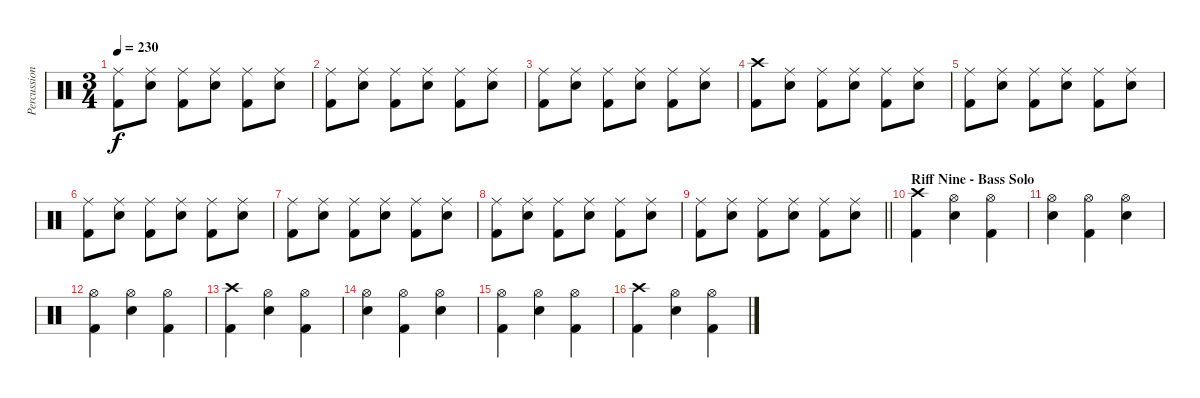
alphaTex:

\track ("Percussion" "Percussion") {instrument percussion}
\staff {score}
\articulation defaults
\ts (3 4)
\tempo 230
\clef neutral
\ks c
("Ride (middle)" "Kick (hit) 2").8{dy f} ("Ride (middle)" "Electric Snare (hit)").8 ("Ride (middle)" "Kick (hit) 2").8 ("Ride (middle)" "Electric Snare (hit)").8 ("Ride (middle)" "Kick (hit) 2").8 ("Ride (middle)" "Electric Snare (hit)").8 |
("Ride (middle)" "Kick (hit) 2").8 ("Ride (middle)" "Electric Snare (hit)").8 ("Ride (middle)" "Kick (hit) 2").8 ("Ride (middle)" "Electric Snare (hit)").8 ("Ride (middle)" "Kick (hit) 2").8 ("Ride (middle)" "Electric Snare (hit)").8 |
("Ride (middle)" "Kick (hit) 2").8 ("Ride (middle)" "Electric Snare (hit)").8 ("Ride (middle)" "Kick (hit) 2").8 ("Ride (middle)" "Electric Snare (hit)").8 ("Ride (middle)" "Kick (hit) 2").8 ("Ride (middle)" "Electric Snare (hit)").8 |
("Crash high (hit)" "Kick (hit) 2").8 ("Ride (middle)" "Electric Snare (hit)").8 ("Ride (middle)" "Kick (hit) 2").8 ("Ride (middle)" "Electric Snare (hit)").8 ("Ride (middle)" "Kick (hit) 2").8 ("Ride (middle)" "Electric Snare (hit)").8 |
("Ride (middle)" "Kick (hit) 2").8 ("Ride (middle)" "Electric Snare (hit)").8 ("Ride (middle)" "Kick (hit) 2").8 ("Ride (middle)" "Electric Snare (hit)").8 ("Ride (middle)" "Kick (hit) 2").8 ("Ride (middle)" "Electric Snare (hit)").8 |
("Ride (middle)" "Kick (hit) 2").8 ("Ride (middle)" "Electric Snare (hit)").8 ("Ride (middle)" "Kick (hit) 2").8 ("Ride (middle)" "Electric Snare (hit)").8 ("Ride (middle)" "Kick (hit) 2").8 ("Ride (middle)" "Electric Snare (hit)").8 |
("Ride (middle)" "Kick (hit) 2").8 ("Ride (middle)" "Electric Snare (hit)").8 ("Ride (middle)" "Kick (hit) 2").8 ("Ride (middle)" "Electric Snare (hit)").8 ("Ride (middle)" "Kick (hit) 2").8 ("Ride (middle)" "Electric Snare (hit)").8 |
("Ride (middle)" "Kick (hit) 2").8 ("Ride (middle)" "Electric Snare (hit)").8 ("Ride (middle)" "Kick (hit) 2").8 ("Ride (middle)" "Electric Snare (hit)").8 ("Ride (middle)" "Kick (hit) 2").8 ("Ride (middle)" "Electric Snare (hit)").8 |
\barLineRight lightlight
("Ride (middle)" "Kick (hit) 2").8 ("Ride (middle)" "Electric Snare (hit)").8 ("Ride (middle)" "Kick (hit) 2").8 ("Ride (middle)" "Electric Snare (hit)").8 ("Ride (middle)" "Kick (hit) 2").8 ("Ride (middle)" "Electric Snare (hit)").8 |
\section ("" "Riff Nine - Bass Solo")
("Crash high (hit)" "Kick (hit) 2").4 ("Hi-Hat (open)" "Electric Snare (hit)").4 ("Hi-Hat (open)" "Kick (hit) 2").4 |
("Hi-Hat (open)" "Electric Snare (hit)").4 ("Hi-Hat (open)" "Kick (hit) 2").4 ("Hi-Hat (open)" "Electric Snare (hit)").4 |
("Hi-Hat (open)" "Kick (hit) 2").4 ("Hi-Hat (open)" "Electric Snare (hit)").4 ("Hi-Hat (open)" "Kick (hit) 2").4 |
("Crash high (hit)" "Kick (hit) 2").4 ("Hi-Hat (open)" "Electric Snare (hit)").4 ("Hi-Hat (open)" "Kick (hit) 2").4 |
("Hi-Hat (open)" "Electric Snare (hit)").4 ("Hi-Hat (open)" "Kick (hit) 2").4 ("Hi-Hat (open)" "Electric Snare (hit)").4 |
("Hi-Hat (open)" "Kick (hit) 2").4 ("Hi-Hat (open)" "Electric Snare (hit)").4 ("Hi-Hat (open)" "Kick (hit) 2").4 |
("Crash high (hit)" "Kick (hit) 2").4 ("Hi-Hat (open)" "Electric Snare (hit)").4 ("Hi-Hat (open)" "Kick (hit) 2").4
